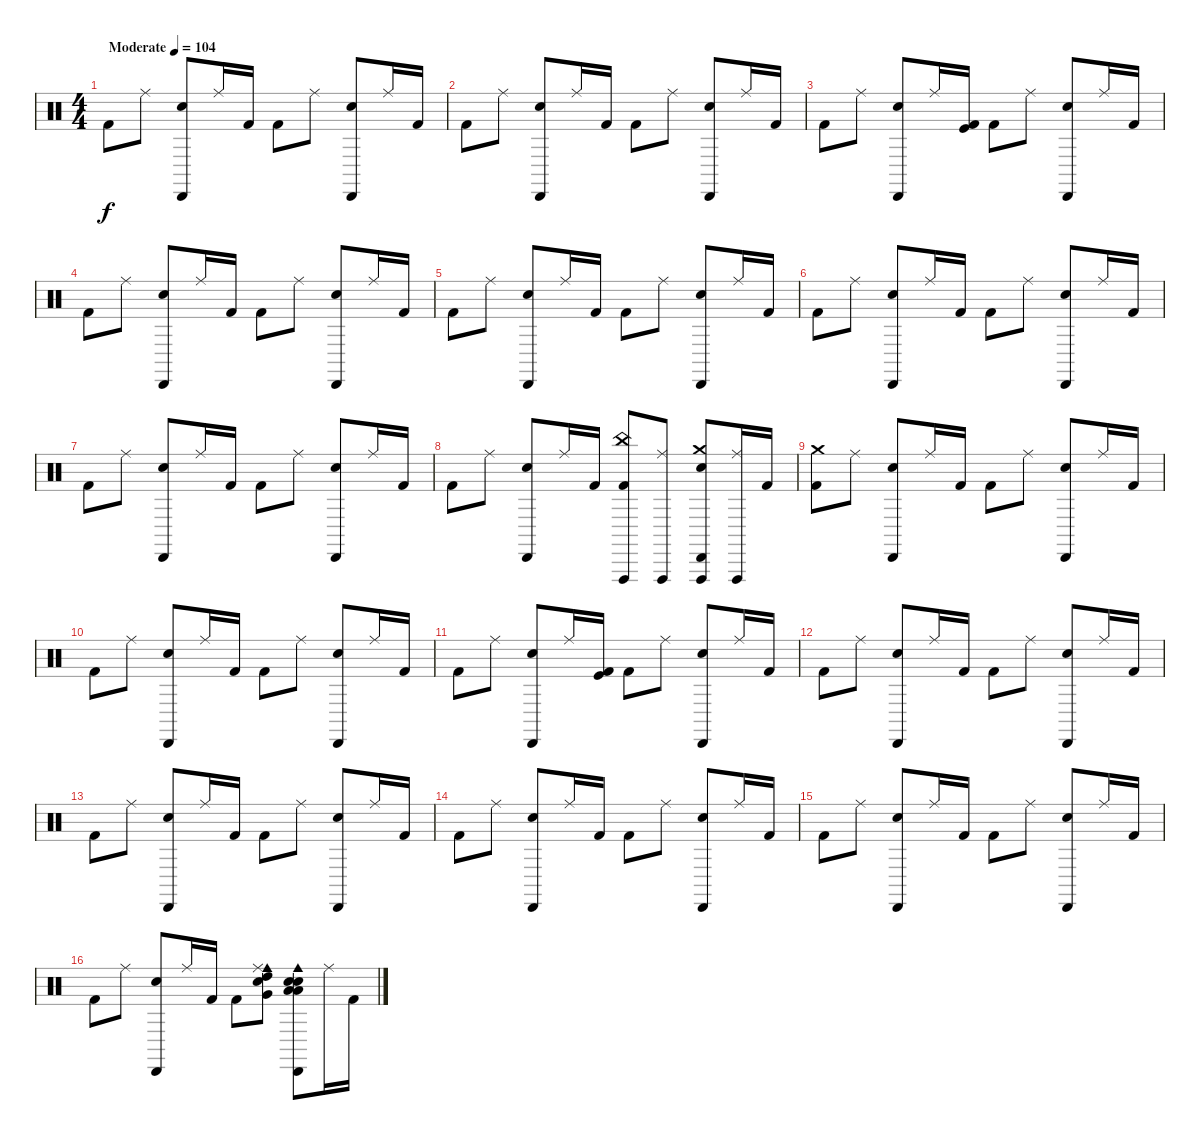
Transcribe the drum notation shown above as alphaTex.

\track "" {instrument percussion}
\staff {score}
\articulation defaults
\ts (4 4)
\tempo (104 "Moderate")
\clef neutral
\ks c "Kick (hit) 2".8{dy f} "Ride (middle)".8
("Hand Clap (hit)" "Cabasa (hit)").8 "Ride (middle)".16 "Kick (hit) 2".16 "Kick (hit) 2".8 "Ride (middle)".8 ("Hand Clap (hit)" "Cabasa (hit)").8 "Ride (middle)".16 "Kick (hit) 2".16 |
"Kick (hit) 2".8 "Ride (middle)".8 ("Hand Clap (hit)" "Cabasa (hit)").8 "Ride (middle)".16 "Kick (hit) 2".16 "Kick (hit) 2".8 "Ride (middle)".8 ("Hand Clap (hit)" "Cabasa (hit)").8 "Ride (middle)".16 "Kick (hit) 2".16 |
"Kick (hit) 2".8 "Ride (middle)".8 ("Hand Clap (hit)" "Cabasa (hit)").8 "Ride (middle)".16 ("Kick (hit) 2" "Kick (hit)").16 "Kick (hit) 2".8 "Ride (middle)".8 ("Hand Clap (hit)" "Cabasa (hit)").8 "Ride (middle)".16 "Kick (hit) 2".16 |
"Kick (hit) 2".8 "Ride (middle)".8 ("Cabasa (hit)" "Hand Clap (hit)").8 "Ride (middle)".16 "Kick (hit) 2".16 "Kick (hit) 2".8 "Ride (middle)".8 ("Cabasa (hit)" "Hand Clap (hit)").8 "Ride (middle)".16 "Kick (hit) 2".16 |
"Kick (hit) 2".8 "Ride (middle)".8 ("Cabasa (hit)" "Hand Clap (hit)").8 "Ride (middle)".16 "Kick (hit) 2".16 "Kick (hit) 2".8 "Ride (middle)".8 ("Cabasa (hit)" "Hand Clap (hit)").8 "Ride (middle)".16 "Kick (hit) 2".16 |
"Kick (hit) 2".8 "Ride (middle)".8 ("Cabasa (hit)" "Hand Clap (hit)").8 "Ride (middle)".16 "Kick (hit) 2".16 "Kick (hit) 2".8 "Ride (middle)".8 ("Cabasa (hit)" "Hand Clap (hit)").8 "Ride (middle)".16 "Kick (hit) 2".16 |
"Kick (hit) 2".8 "Ride (middle)".8 ("Cabasa (hit)" "Hand Clap (hit)").8 "Ride (middle)".16 "Kick (hit) 2".16 "Kick (hit) 2".8 "Ride (middle)".8 ("Cabasa (hit)" "Hand Clap (hit)").8 "Ride (middle)".16 "Kick (hit) 2".16 |
"Kick (hit) 2".8 "Ride (middle)".8 ("Cabasa (hit)" "Hand Clap (hit)").8 "Ride (middle)".16 "Kick (hit) 2".16 ("Vibraslap (hit)" "China (hit)" "Kick (hit) 2").8 ("Ride (middle)" "Vibraslap (hit)").8 ("Vibraslap (hit)" "Crash medium (hit)" "Cabasa (hit)" "Hand Clap (hit)").8 ("Ride (middle)" "Vibraslap (hit)").16 "Kick (hit) 2".16 |
("Crash medium (hit)" "Kick (hit) 2").8 "Ride (middle)".8 ("Hand Clap (hit)" "Cabasa (hit)").8 "Ride (middle)".16 "Kick (hit) 2".16 "Kick (hit) 2".8 "Ride (middle)".8 ("Hand Clap (hit)" "Cabasa (hit)").8 "Ride (middle)".16 "Kick (hit) 2".16 |
"Kick (hit) 2".8 "Ride (middle)".8 ("Hand Clap (hit)" "Cabasa (hit)").8 "Ride (middle)".16 "Kick (hit) 2".16 "Kick (hit) 2".8 "Ride (middle)".8 ("Hand Clap (hit)" "Cabasa (hit)").8 "Ride (middle)".16 "Kick (hit) 2".16 |
"Kick (hit) 2".8 "Ride (middle)".8 ("Hand Clap (hit)" "Cabasa (hit)").8 "Ride (middle)".16 ("Kick (hit) 2" "Kick (hit)").16 "Kick (hit) 2".8 "Ride (middle)".8 ("Hand Clap (hit)" "Cabasa (hit)").8 "Ride (middle)".16 "Kick (hit) 2".16 |
"Kick (hit) 2".8 "Ride (middle)".8 ("Cabasa (hit)" "Hand Clap (hit)").8 "Ride (middle)".16 "Kick (hit) 2".16 "Kick (hit) 2".8 "Ride (middle)".8 ("Cabasa (hit)" "Hand Clap (hit)").8 "Ride (middle)".16 "Kick (hit) 2".16 |
"Kick (hit) 2".8 "Ride (middle)".8 ("Cabasa (hit)" "Hand Clap (hit)").8 "Ride (middle)".16 "Kick (hit) 2".16 "Kick (hit) 2".8 "Ride (middle)".8 ("Cabasa (hit)" "Hand Clap (hit)").8 "Ride (middle)".16 "Kick (hit) 2".16 |
"Kick (hit) 2".8 "Ride (middle)".8 ("Cabasa (hit)" "Hand Clap (hit)").8 "Ride (middle)".16 "Kick (hit) 2".16 "Kick (hit) 2".8 "Ride (middle)".8 ("Cabasa (hit)" "Hand Clap (hit)").8 "Ride (middle)".16 "Kick (hit) 2".16 |
"Kick (hit) 2".8 "Ride (middle)".8 ("Cabasa (hit)" "Hand Clap (hit)").8 "Ride (middle)".16 "Kick (hit) 2".16 "Kick (hit) 2".8 "Ride (middle)".8 ("Cabasa (hit)" "Hand Clap (hit)").8 "Ride (middle)".16 "Kick (hit) 2".16 |
"Kick (hit) 2".8 "Ride (middle)".8 ("Cabasa (hit)" "Hand Clap (hit)").8 "Ride (middle)".16 "Kick (hit) 2".16 "Kick (hit) 2".8 ("Very Low Tom (hit)" "Electric Snare (hit)" "Cowbell medium (hit)" "High Tom (hit)" "Ride (middle)").8 ("Snare (hit) 2" "Low Floor Tom (hit)" "Low Tom (hit)" "Cowbell medium (hit)" "Cabasa (hit)" "Hand Clap (hit)").8 "Ride (middle)".16 "Kick (hit) 2".16
